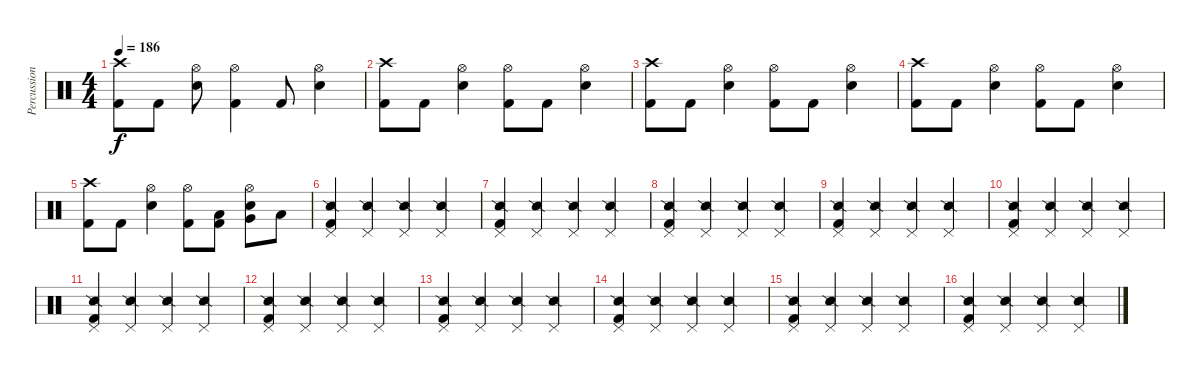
\track ("Percussion" "Percussion") {instrument percussion}
\staff {score}
\articulation defaults
\ts (4 4)
\tempo 186
\clef neutral
\ks c
("Crash high (hit)" "Kick (hit) 2").8{dy f} "Kick (hit) 2".8 ("Hi-Hat (open)" "Electric Snare (hit)").8 ("Hi-Hat (open)" "Kick (hit) 2").4 "Kick (hit) 2".8 ("Hi-Hat (open)" "Electric Snare (hit)").4 |
("Crash high (hit)" "Kick (hit) 2").8 "Kick (hit) 2".8 ("Hi-Hat (open)" "Electric Snare (hit)").4 ("Hi-Hat (open)" "Kick (hit) 2").8 "Kick (hit) 2".8 ("Hi-Hat (open)" "Electric Snare (hit)").4 |
("Crash high (hit)" "Kick (hit) 2").8 "Kick (hit) 2".8 ("Hi-Hat (open)" "Electric Snare (hit)").4 ("Hi-Hat (open)" "Kick (hit) 2").8 "Kick (hit) 2".8 ("Hi-Hat (open)" "Electric Snare (hit)").4 |
("Crash high (hit)" "Kick (hit) 2").8 "Kick (hit) 2".8 ("Hi-Hat (open)" "Electric Snare (hit)").4 ("Hi-Hat (open)" "Kick (hit) 2").8 "Kick (hit) 2".8 ("Hi-Hat (open)" "Electric Snare (hit)").4 |
("Crash high (hit)" "Kick (hit) 2").8 "Kick (hit) 2".8 ("Hi-Hat (open)" "Electric Snare (hit)").4 ("Hi-Hat (open)" "Kick (hit) 2").8 ("Low Floor Tom (hit)" "Kick (hit) 2").8 ("Very Low Tom (hit)" "Hi-Hat (open)" "Electric Snare (hit)").8 "Low Tom (hit)".8 |
("Kick (hit) 2" "Pedal Hi-Hat (hit)" "Snare (side stick) 2").4 ("Pedal Hi-Hat (hit)" "Snare (side stick) 2").4 ("Pedal Hi-Hat (hit)" "Snare (side stick) 2").4 ("Pedal Hi-Hat (hit)" "Snare (side stick) 2").4 |
("Kick (hit) 2" "Pedal Hi-Hat (hit)" "Snare (side stick) 2").4 ("Pedal Hi-Hat (hit)" "Snare (side stick) 2").4 ("Pedal Hi-Hat (hit)" "Snare (side stick) 2").4 ("Pedal Hi-Hat (hit)" "Snare (side stick) 2").4 |
("Kick (hit) 2" "Pedal Hi-Hat (hit)" "Snare (side stick) 2").4 ("Pedal Hi-Hat (hit)" "Snare (side stick) 2").4 ("Pedal Hi-Hat (hit)" "Snare (side stick) 2").4 ("Pedal Hi-Hat (hit)" "Snare (side stick) 2").4 |
("Kick (hit) 2" "Pedal Hi-Hat (hit)" "Snare (side stick) 2").4 ("Pedal Hi-Hat (hit)" "Snare (side stick) 2").4 ("Pedal Hi-Hat (hit)" "Snare (side stick) 2").4 ("Pedal Hi-Hat (hit)" "Snare (side stick) 2").4 |
("Kick (hit) 2" "Pedal Hi-Hat (hit)" "Snare (side stick) 2").4 ("Pedal Hi-Hat (hit)" "Snare (side stick) 2").4 ("Pedal Hi-Hat (hit)" "Snare (side stick) 2").4 ("Pedal Hi-Hat (hit)" "Snare (side stick) 2").4 |
("Kick (hit) 2" "Pedal Hi-Hat (hit)" "Snare (side stick) 2").4 ("Pedal Hi-Hat (hit)" "Snare (side stick) 2").4 ("Pedal Hi-Hat (hit)" "Snare (side stick) 2").4 ("Pedal Hi-Hat (hit)" "Snare (side stick) 2").4 |
("Kick (hit) 2" "Pedal Hi-Hat (hit)" "Snare (side stick) 2").4 ("Pedal Hi-Hat (hit)" "Snare (side stick) 2").4 ("Pedal Hi-Hat (hit)" "Snare (side stick) 2").4 ("Pedal Hi-Hat (hit)" "Snare (side stick) 2").4 |
("Kick (hit) 2" "Pedal Hi-Hat (hit)" "Snare (side stick) 2").4 ("Pedal Hi-Hat (hit)" "Snare (side stick) 2").4 ("Pedal Hi-Hat (hit)" "Snare (side stick) 2").4 ("Pedal Hi-Hat (hit)" "Snare (side stick) 2").4 |
("Kick (hit) 2" "Pedal Hi-Hat (hit)" "Snare (side stick) 2").4 ("Pedal Hi-Hat (hit)" "Snare (side stick) 2").4 ("Pedal Hi-Hat (hit)" "Snare (side stick) 2").4 ("Pedal Hi-Hat (hit)" "Snare (side stick) 2").4 |
("Kick (hit) 2" "Pedal Hi-Hat (hit)" "Snare (side stick) 2").4 ("Pedal Hi-Hat (hit)" "Snare (side stick) 2").4 ("Pedal Hi-Hat (hit)" "Snare (side stick) 2").4 ("Pedal Hi-Hat (hit)" "Snare (side stick) 2").4 |
("Kick (hit) 2" "Pedal Hi-Hat (hit)" "Snare (side stick) 2").4 ("Pedal Hi-Hat (hit)" "Snare (side stick) 2").4 ("Pedal Hi-Hat (hit)" "Snare (side stick) 2").4 ("Pedal Hi-Hat (hit)" "Snare (side stick) 2").4
